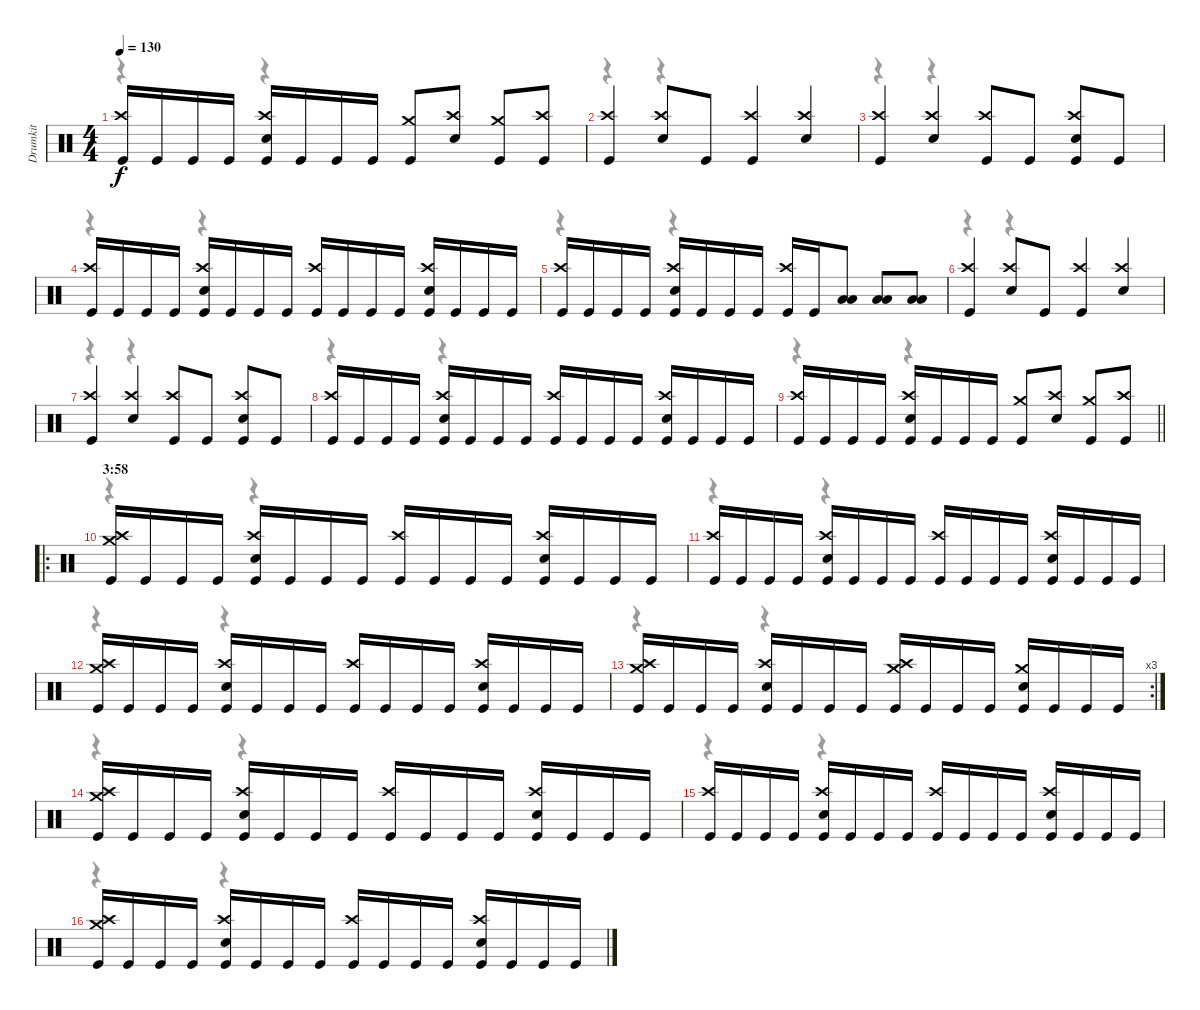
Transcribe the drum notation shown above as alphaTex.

\track ("Drumkit" "Drumkit") {instrument percussion}
\staff {score}
\articulation defaults
\voice
\ts (4 4)
\tempo 130
\clef neutral
\ks c
("Crash high (hit)" "Kick (hit)").16{dy f} "Kick (hit)".16 "Kick (hit)".16 "Kick (hit)".16 ("Crash high (hit)" "Snare (hit) 2" "Kick (hit)").16 "Kick (hit)".16 "Kick (hit)".16 "Kick (hit)".16 ("Crash medium (hit)" "Kick (hit)").8 ("Crash high (hit)" "Snare (hit) 2").8 ("Crash medium (hit)" "Kick (hit)").8 ("Crash high (hit)" "Kick (hit)").8 |
("Crash high (hit)" "Kick (hit)").4 ("Crash high (hit)" "Snare (hit) 2").8 "Kick (hit)".8 ("Crash high (hit)" "Kick (hit)").4 ("Crash high (hit)" "Snare (hit) 2").4 |
("Crash high (hit)" "Kick (hit)").4 ("Crash high (hit)" "Snare (hit) 2").4 ("Crash high (hit)" "Kick (hit)").8 "Kick (hit)".8 ("Crash high (hit)" "Snare (hit) 2" "Kick (hit)").8 "Kick (hit)".8 |
("Crash high (hit)" "Kick (hit)").16 "Kick (hit)".16 "Kick (hit)".16 "Kick (hit)".16 ("Crash high (hit)" "Snare (hit) 2" "Kick (hit)").16 "Kick (hit)".16 "Kick (hit)".16 "Kick (hit)".16 ("Crash high (hit)" "Kick (hit)").16 "Kick (hit)".16 "Kick (hit)".16 "Kick (hit)".16 ("Crash high (hit)" "Snare (hit) 2" "Kick (hit)").16 "Kick (hit)".16 "Kick (hit)".16 "Kick (hit)".16 |
("Crash high (hit)" "Kick (hit)").16 "Kick (hit)".16 "Kick (hit)".16 "Kick (hit)".16 ("Crash high (hit)" "Snare (hit) 2" "Kick (hit)").16 "Kick (hit)".16 "Kick (hit)".16 "Kick (hit)".16 ("Crash high (hit)" "Kick (hit)").16 "Kick (hit)".16 ("Low Tom (hit)" "Low Floor Tom (hit)").8 ("Low Tom (hit)" "Low Floor Tom (hit)").8 ("Low Tom (hit)" "Low Floor Tom (hit)").8 |
("Crash high (hit)" "Kick (hit)").4 ("Crash high (hit)" "Snare (hit) 2").8 "Kick (hit)".8 ("Crash high (hit)" "Kick (hit)").4 ("Crash high (hit)" "Snare (hit) 2").4 |
("Crash high (hit)" "Kick (hit)").4 ("Crash high (hit)" "Snare (hit) 2").4 ("Crash high (hit)" "Kick (hit)").8 "Kick (hit)".8 ("Crash high (hit)" "Snare (hit) 2" "Kick (hit)").8 "Kick (hit)".8 |
("Crash high (hit)" "Kick (hit)").16 "Kick (hit)".16 "Kick (hit)".16 "Kick (hit)".16 ("Crash high (hit)" "Snare (hit) 2" "Kick (hit)").16 "Kick (hit)".16 "Kick (hit)".16 "Kick (hit)".16 ("Crash high (hit)" "Kick (hit)").16 "Kick (hit)".16 "Kick (hit)".16 "Kick (hit)".16 ("Crash high (hit)" "Snare (hit) 2" "Kick (hit)").16 "Kick (hit)".16 "Kick (hit)".16 "Kick (hit)".16 |
\barLineRight lightlight
("Crash high (hit)" "Kick (hit)").16 "Kick (hit)".16 "Kick (hit)".16 "Kick (hit)".16 ("Crash high (hit)" "Snare (hit) 2" "Kick (hit)").16 "Kick (hit)".16 "Kick (hit)".16 "Kick (hit)".16 ("Crash medium (hit)" "Kick (hit)").8 ("Crash high (hit)" "Snare (hit) 2").8 ("Crash medium (hit)" "Kick (hit)").8 ("Crash high (hit)" "Kick (hit)").8 |
\ro
\section ("" "3:58")
("Crash high (hit)" "Crash medium (hit)" "Kick (hit)").16 "Kick (hit)".16 "Kick (hit)".16 "Kick (hit)".16 ("Crash high (hit)" "Snare (hit) 2" "Kick (hit)").16 "Kick (hit)".16 "Kick (hit)".16 "Kick (hit)".16 ("Crash high (hit)" "Kick (hit)").16 "Kick (hit)".16 "Kick (hit)".16 "Kick (hit)".16 ("Crash high (hit)" "Snare (hit) 2" "Kick (hit)").16 "Kick (hit)".16 "Kick (hit)".16 "Kick (hit)".16 |
("Crash high (hit)" "Kick (hit)").16 "Kick (hit)".16 "Kick (hit)".16 "Kick (hit)".16 ("Crash high (hit)" "Snare (hit) 2" "Kick (hit)").16 "Kick (hit)".16 "Kick (hit)".16 "Kick (hit)".16 ("Crash high (hit)" "Kick (hit)").16 "Kick (hit)".16 "Kick (hit)".16 "Kick (hit)".16 ("Crash high (hit)" "Snare (hit) 2" "Kick (hit)").16 "Kick (hit)".16 "Kick (hit)".16 "Kick (hit)".16 |
("Crash high (hit)" "Crash medium (hit)" "Kick (hit)").16 "Kick (hit)".16 "Kick (hit)".16 "Kick (hit)".16 ("Crash high (hit)" "Snare (hit) 2" "Kick (hit)").16 "Kick (hit)".16 "Kick (hit)".16 "Kick (hit)".16 ("Crash high (hit)" "Kick (hit)").16 "Kick (hit)".16 "Kick (hit)".16 "Kick (hit)".16 ("Crash high (hit)" "Snare (hit) 2" "Kick (hit)").16 "Kick (hit)".16 "Kick (hit)".16 "Kick (hit)".16 |
\rc 3
("Crash high (hit)" "Crash medium (hit)" "Kick (hit)").16 "Kick (hit)".16 "Kick (hit)".16 "Kick (hit)".16 ("Crash high (hit)" "Snare (hit) 2" "Kick (hit)").16 "Kick (hit)".16 "Kick (hit)".16 "Kick (hit)".16 ("Crash high (hit)" "Crash medium (hit)" "Kick (hit)").16 "Kick (hit)".16 "Kick (hit)".16 "Kick (hit)".16 ("Crash medium (hit)" "Snare (hit) 2" "Kick (hit)").16 "Kick (hit)".16 "Kick (hit)".16 "Kick (hit)".16 |
("Crash high (hit)" "Crash medium (hit)" "Kick (hit)").16 "Kick (hit)".16 "Kick (hit)".16 "Kick (hit)".16 ("Crash high (hit)" "Snare (hit) 2" "Kick (hit)").16 "Kick (hit)".16 "Kick (hit)".16 "Kick (hit)".16 ("Crash high (hit)" "Kick (hit)").16 "Kick (hit)".16 "Kick (hit)".16 "Kick (hit)".16 ("Crash high (hit)" "Snare (hit) 2" "Kick (hit)").16 "Kick (hit)".16 "Kick (hit)".16 "Kick (hit)".16 |
("Crash high (hit)" "Kick (hit)").16 "Kick (hit)".16 "Kick (hit)".16 "Kick (hit)".16 ("Crash high (hit)" "Snare (hit) 2" "Kick (hit)").16 "Kick (hit)".16 "Kick (hit)".16 "Kick (hit)".16 ("Crash high (hit)" "Kick (hit)").16 "Kick (hit)".16 "Kick (hit)".16 "Kick (hit)".16 ("Crash high (hit)" "Snare (hit) 2" "Kick (hit)").16 "Kick (hit)".16 "Kick (hit)".16 "Kick (hit)".16 |
("Crash high (hit)" "Crash medium (hit)" "Kick (hit)").16 "Kick (hit)".16 "Kick (hit)".16 "Kick (hit)".16 ("Crash high (hit)" "Snare (hit) 2" "Kick (hit)").16 "Kick (hit)".16 "Kick (hit)".16 "Kick (hit)".16 ("Crash high (hit)" "Kick (hit)").16 "Kick (hit)".16 "Kick (hit)".16 "Kick (hit)".16 ("Crash high (hit)" "Snare (hit) 2" "Kick (hit)").16 "Kick (hit)".16 "Kick (hit)".16 "Kick (hit)".16
\voice
\clef neutral
\ottava regular
\simile none
\ks c
r.4{dy f} r.4 |
r.4 r.4 |
r.4 r.4 |
r.4 r.4 |
r.4 r.4 |
r.4 r.4 |
r.4 r.4 |
r.4 r.4 |
\barLineRight lightlight
r.4 r.4 |
r.4 r.4 |
r.4 r.4 |
r.4 r.4 |
r.4 r.4 |
r.4 r.4 |
r.4 r.4 |
r.4 r.4
